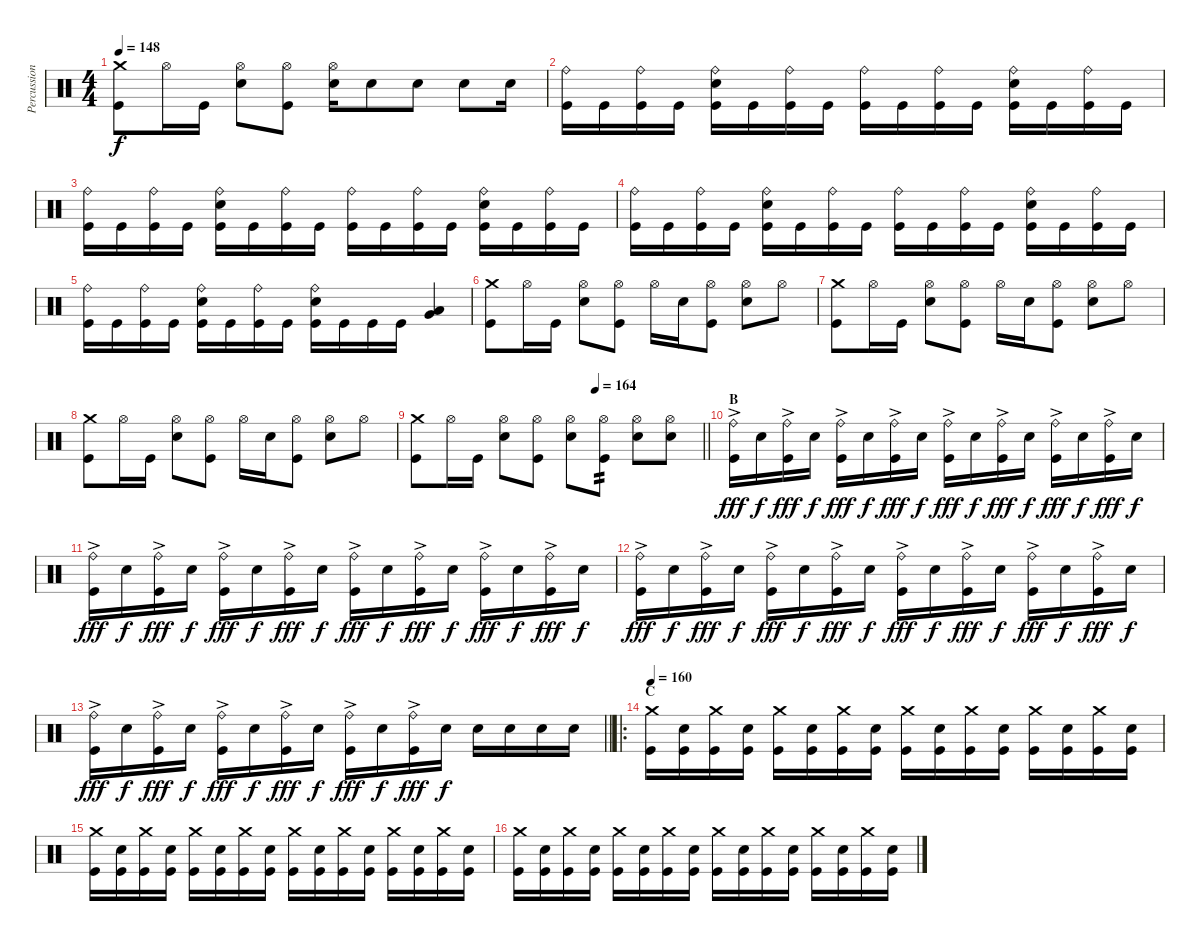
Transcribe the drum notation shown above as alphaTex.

\track ("Percussion" "Percussion") {instrument percussion}
\staff {score}
\articulation defaults
\ts (4 4)
\tempo 148
\clef neutral
\ks c
("Kick (hit)" "Crash medium (hit)").8{dy f} "Hi-Hat (open)".16 "Kick (hit)".16 ("Snare (hit) 2" "Hi-Hat (open)").8 ("Kick (hit)" "Hi-Hat (open)").8 ("Snare (hit) 2" "Hi-Hat (open)").16 "Snare (hit) 2".8 "Snare (hit) 2".8 "Snare (hit) 2".8 "Snare (hit) 2".16 |
("Kick (hit)" "Ride (bell)").16 "Kick (hit)".16 ("Kick (hit)" "Ride (bell)").16 "Kick (hit)".16 ("Kick (hit)" "Snare (hit) 2" "Ride (bell)").16 "Kick (hit)".16 ("Kick (hit)" "Ride (bell)").16 "Kick (hit)".16 ("Kick (hit)" "Ride (bell)").16 "Kick (hit)".16 ("Kick (hit)" "Ride (bell)").16 "Kick (hit)".16 ("Kick (hit)" "Snare (hit) 2" "Ride (bell)").16 "Kick (hit)".16 ("Kick (hit)" "Ride (bell)").16 "Kick (hit)".16 |
("Kick (hit)" "Ride (bell)").16 "Kick (hit)".16 ("Kick (hit)" "Ride (bell)").16 "Kick (hit)".16 ("Kick (hit)" "Snare (hit) 2" "Ride (bell)").16 "Kick (hit)".16 ("Kick (hit)" "Ride (bell)").16 "Kick (hit)".16 ("Kick (hit)" "Ride (bell)").16 "Kick (hit)".16 ("Kick (hit)" "Ride (bell)").16 "Kick (hit)".16 ("Kick (hit)" "Snare (hit) 2" "Ride (bell)").16 "Kick (hit)".16 ("Kick (hit)" "Ride (bell)").16 "Kick (hit)".16 |
("Kick (hit)" "Ride (bell)").16 "Kick (hit)".16 ("Kick (hit)" "Ride (bell)").16 "Kick (hit)".16 ("Kick (hit)" "Snare (hit) 2" "Ride (bell)").16 "Kick (hit)".16 ("Kick (hit)" "Ride (bell)").16 "Kick (hit)".16 ("Kick (hit)" "Ride (bell)").16 "Kick (hit)".16 ("Kick (hit)" "Ride (bell)").16 "Kick (hit)".16 ("Kick (hit)" "Snare (hit) 2" "Ride (bell)").16 "Kick (hit)".16 ("Kick (hit)" "Ride (bell)").16 "Kick (hit)".16 |
("Kick (hit)" "Ride (bell)").16 "Kick (hit)".16 ("Kick (hit)" "Ride (bell)").16 "Kick (hit)".16 ("Kick (hit)" "Snare (hit) 2" "Ride (bell)").16 "Kick (hit)".16 ("Kick (hit)" "Ride (bell)").16 "Kick (hit)".16 ("Kick (hit)" "Snare (hit) 2" "Ride (bell)").16 "Kick (hit)".16 "Kick (hit)".16 "Kick (hit)".16 ("Low Floor Tom (hit)" "Very Low Tom (hit)").4 |
("Kick (hit)" "Crash medium (hit)").8 "Hi-Hat (open)".16 "Kick (hit)".16 ("Snare (hit) 2" "Hi-Hat (open)").8 ("Kick (hit)" "Hi-Hat (open)").8 "Hi-Hat (open)".16 "Snare (hit) 2".16 ("Kick (hit)" "Hi-Hat (open)").8 ("Snare (hit) 2" "Hi-Hat (open)").8 "Hi-Hat (open)".8 |
("Kick (hit)" "Crash medium (hit)").8 "Hi-Hat (open)".16 "Kick (hit)".16 ("Snare (hit) 2" "Hi-Hat (open)").8 ("Kick (hit)" "Hi-Hat (open)").8 "Hi-Hat (open)".16 "Snare (hit) 2".16 ("Kick (hit)" "Hi-Hat (open)").8 ("Snare (hit) 2" "Hi-Hat (open)").8 "Hi-Hat (open)".8 |
("Kick (hit)" "Crash medium (hit)").8 "Hi-Hat (open)".16 "Kick (hit)".16 ("Snare (hit) 2" "Hi-Hat (open)").8 ("Kick (hit)" "Hi-Hat (open)").8 "Hi-Hat (open)".16 "Snare (hit) 2".16 ("Kick (hit)" "Hi-Hat (open)").8 ("Snare (hit) 2" "Hi-Hat (open)").8 "Hi-Hat (open)".8 |
\tempo (164 0.625)
\barLineRight lightlight
("Kick (hit)" "Crash medium (hit)").8 "Hi-Hat (open)".16 "Kick (hit)".16 ("Snare (hit) 2" "Hi-Hat (open)").8 ("Kick (hit)" "Hi-Hat (open)").8 ("Snare (hit) 2" "Hi-Hat (open)").8 ("Kick (hit)" "Hi-Hat (open)").8{tp 2} ("Snare (hit) 2" "Hi-Hat (open)").8 ("Snare (hit) 2" "Hi-Hat (open)").8 |
\section ("" "B")
("Kick (hit)" "Ride (bell)"{ac}).16{dy fff} "Snare (hit) 2".16{dy f} ("Kick (hit)" "Ride (bell)"{ac}).16{dy fff} "Snare (hit) 2".16{dy f} ("Kick (hit)" "Ride (bell)"{ac}).16{dy fff} "Snare (hit) 2".16{dy f} ("Kick (hit)" "Ride (bell)"{ac}).16{dy fff} "Snare (hit) 2".16{dy f} ("Kick (hit)" "Ride (bell)"{ac}).16{dy fff} "Snare (hit) 2".16{dy f} ("Kick (hit)" "Ride (bell)"{ac}).16{dy fff} "Snare (hit) 2".16{dy f} ("Kick (hit)" "Ride (bell)"{ac}).16{dy fff} "Snare (hit) 2".16{dy f} ("Kick (hit)" "Ride (bell)"{ac}).16{dy fff} "Snare (hit) 2".16{dy f} |
("Kick (hit)" "Ride (bell)"{ac}).16{dy fff} "Snare (hit) 2".16{dy f} ("Kick (hit)" "Ride (bell)"{ac}).16{dy fff} "Snare (hit) 2".16{dy f} ("Kick (hit)" "Ride (bell)"{ac}).16{dy fff} "Snare (hit) 2".16{dy f} ("Kick (hit)" "Ride (bell)"{ac}).16{dy fff} "Snare (hit) 2".16{dy f} ("Kick (hit)" "Ride (bell)"{ac}).16{dy fff} "Snare (hit) 2".16{dy f} ("Kick (hit)" "Ride (bell)"{ac}).16{dy fff} "Snare (hit) 2".16{dy f} ("Kick (hit)" "Ride (bell)"{ac}).16{dy fff} "Snare (hit) 2".16{dy f} ("Kick (hit)" "Ride (bell)"{ac}).16{dy fff} "Snare (hit) 2".16{dy f} |
("Kick (hit)" "Ride (bell)"{ac}).16{dy fff} "Snare (hit) 2".16{dy f} ("Kick (hit)" "Ride (bell)"{ac}).16{dy fff} "Snare (hit) 2".16{dy f} ("Kick (hit)" "Ride (bell)"{ac}).16{dy fff} "Snare (hit) 2".16{dy f} ("Kick (hit)" "Ride (bell)"{ac}).16{dy fff} "Snare (hit) 2".16{dy f} ("Kick (hit)" "Ride (bell)"{ac}).16{dy fff} "Snare (hit) 2".16{dy f} ("Kick (hit)" "Ride (bell)"{ac}).16{dy fff} "Snare (hit) 2".16{dy f} ("Kick (hit)" "Ride (bell)"{ac}).16{dy fff} "Snare (hit) 2".16{dy f} ("Kick (hit)" "Ride (bell)"{ac}).16{dy fff} "Snare (hit) 2".16{dy f} |
\barLineRight lightlight
("Kick (hit)" "Ride (bell)"{ac}).16{dy fff} "Snare (hit) 2".16{dy f} ("Kick (hit)" "Ride (bell)"{ac}).16{dy fff} "Snare (hit) 2".16{dy f} ("Kick (hit)" "Ride (bell)"{ac}).16{dy fff} "Snare (hit) 2".16{dy f} ("Kick (hit)" "Ride (bell)"{ac}).16{dy fff} "Snare (hit) 2".16{dy f} ("Kick (hit)" "Ride (bell)"{ac}).16{dy fff} "Snare (hit) 2".16{dy f} ("Kick (hit)" "Ride (bell)"{ac}).16{dy fff} "Snare (hit) 2".16{dy f} "Snare (hit) 2".16 "Snare (hit) 2".16 "Snare (hit) 2".16 "Snare (hit) 2".16 |
\ro
\section ("" "C")
\tempo 160
("Kick (hit)" "Crash medium (hit)").16 ("Kick (hit)" "Snare (hit) 2").16 ("Kick (hit)" "Crash medium (hit)").16 ("Kick (hit)" "Snare (hit) 2").16 ("Kick (hit)" "Crash medium (hit)").16 ("Kick (hit)" "Snare (hit) 2").16 ("Kick (hit)" "Crash medium (hit)").16 ("Kick (hit)" "Snare (hit) 2").16 ("Kick (hit)" "Crash medium (hit)").16 ("Kick (hit)" "Snare (hit) 2").16 ("Kick (hit)" "Crash medium (hit)").16 ("Kick (hit)" "Snare (hit) 2").16 ("Kick (hit)" "Crash medium (hit)").16 ("Kick (hit)" "Snare (hit) 2").16 ("Kick (hit)" "Crash medium (hit)").16 ("Kick (hit)" "Snare (hit) 2").16 |
("Kick (hit)" "Crash medium (hit)").16 ("Kick (hit)" "Snare (hit) 2").16 ("Kick (hit)" "Crash medium (hit)").16 ("Kick (hit)" "Snare (hit) 2").16 ("Kick (hit)" "Crash medium (hit)").16 ("Kick (hit)" "Snare (hit) 2").16 ("Kick (hit)" "Crash medium (hit)").16 ("Kick (hit)" "Snare (hit) 2").16 ("Kick (hit)" "Crash medium (hit)").16 ("Kick (hit)" "Snare (hit) 2").16 ("Kick (hit)" "Crash medium (hit)").16 ("Kick (hit)" "Snare (hit) 2").16 ("Kick (hit)" "Crash medium (hit)").16 ("Kick (hit)" "Snare (hit) 2").16 ("Kick (hit)" "Crash medium (hit)").16 ("Kick (hit)" "Snare (hit) 2").16 |
("Kick (hit)" "Crash medium (hit)").16 ("Kick (hit)" "Snare (hit) 2").16 ("Kick (hit)" "Crash medium (hit)").16 ("Kick (hit)" "Snare (hit) 2").16 ("Kick (hit)" "Crash medium (hit)").16 ("Kick (hit)" "Snare (hit) 2").16 ("Kick (hit)" "Crash medium (hit)").16 ("Kick (hit)" "Snare (hit) 2").16 ("Kick (hit)" "Crash medium (hit)").16 ("Kick (hit)" "Snare (hit) 2").16 ("Kick (hit)" "Crash medium (hit)").16 ("Kick (hit)" "Snare (hit) 2").16 ("Kick (hit)" "Crash medium (hit)").16 ("Kick (hit)" "Snare (hit) 2").16 ("Kick (hit)" "Crash medium (hit)").16 ("Kick (hit)" "Snare (hit) 2").16
